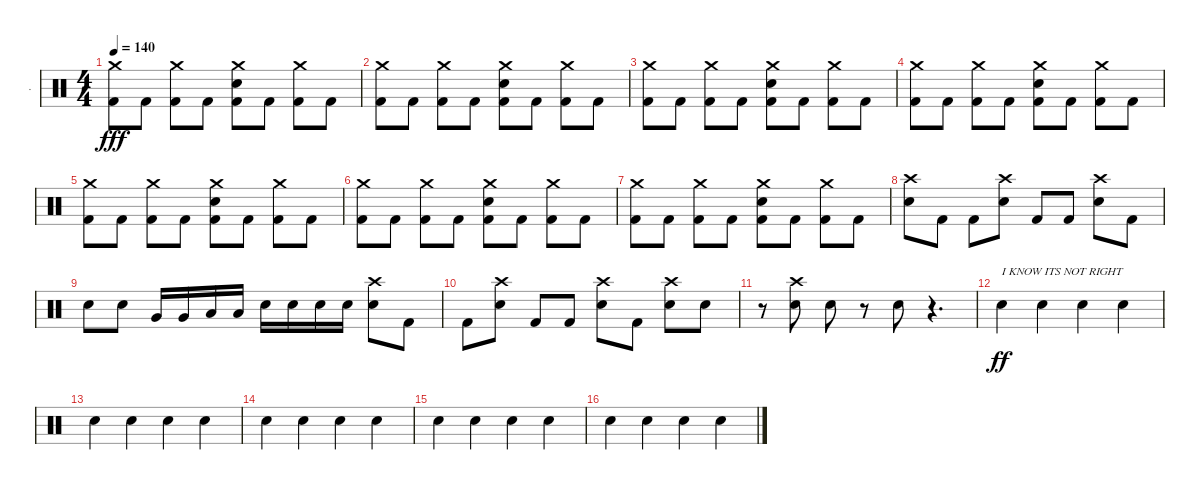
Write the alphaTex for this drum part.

\track ("." ".") {instrument percussion}
\staff {score}
\articulation defaults
\ts (4 4)
\tempo 140
\clef neutral
\ks c
("Crash medium (hit)" "Kick (hit) 2").8{dy fff} "Kick (hit) 2".8 ("Crash medium (hit)" "Kick (hit) 2").8 "Kick (hit) 2".8 ("Crash medium (hit)" "Electric Snare (hit)" "Kick (hit) 2").8 "Kick (hit) 2".8 ("Crash medium (hit)" "Kick (hit) 2").8 "Kick (hit) 2".8 |
("Crash medium (hit)" "Kick (hit) 2").8 "Kick (hit) 2".8 ("Crash medium (hit)" "Kick (hit) 2").8 "Kick (hit) 2".8 ("Crash medium (hit)" "Electric Snare (hit)" "Kick (hit) 2").8 "Kick (hit) 2".8 ("Crash medium (hit)" "Kick (hit) 2").8 "Kick (hit) 2".8 |
("Crash medium (hit)" "Kick (hit) 2").8 "Kick (hit) 2".8 ("Crash medium (hit)" "Kick (hit) 2").8 "Kick (hit) 2".8 ("Crash medium (hit)" "Electric Snare (hit)" "Kick (hit) 2").8 "Kick (hit) 2".8 ("Crash medium (hit)" "Kick (hit) 2").8 "Kick (hit) 2".8 |
("Crash medium (hit)" "Kick (hit) 2").8 "Kick (hit) 2".8 ("Crash medium (hit)" "Kick (hit) 2").8 "Kick (hit) 2".8 ("Crash medium (hit)" "Electric Snare (hit)" "Kick (hit) 2").8 "Kick (hit) 2".8 ("Crash medium (hit)" "Kick (hit) 2").8 "Kick (hit) 2".8 |
("Crash medium (hit)" "Kick (hit) 2").8 "Kick (hit) 2".8 ("Crash medium (hit)" "Kick (hit) 2").8 "Kick (hit) 2".8 ("Crash medium (hit)" "Electric Snare (hit)" "Kick (hit) 2").8 "Kick (hit) 2".8 ("Crash medium (hit)" "Kick (hit) 2").8 "Kick (hit) 2".8 |
("Crash medium (hit)" "Kick (hit) 2").8 "Kick (hit) 2".8 ("Crash medium (hit)" "Kick (hit) 2").8 "Kick (hit) 2".8 ("Crash medium (hit)" "Electric Snare (hit)" "Kick (hit) 2").8 "Kick (hit) 2".8 ("Crash medium (hit)" "Kick (hit) 2").8 "Kick (hit) 2".8 |
("Crash medium (hit)" "Kick (hit) 2").8 "Kick (hit) 2".8 ("Crash medium (hit)" "Kick (hit) 2").8 "Kick (hit) 2".8 ("Crash medium (hit)" "Electric Snare (hit)" "Kick (hit) 2").8 "Kick (hit) 2".8 ("Crash medium (hit)" "Kick (hit) 2").8 "Kick (hit) 2".8 |
("Crash high (hit)" "Electric Snare (hit)").8 "Kick (hit) 2".8 "Kick (hit) 2".8 ("Crash high (hit)" "Electric Snare (hit)").8 "Kick (hit) 2".8 "Kick (hit) 2".8 ("Crash high (hit)" "Electric Snare (hit)").8 "Kick (hit) 2".8 |
"Electric Snare (hit)".8 "Electric Snare (hit)".8 "Very Low Tom (hit)".16 "Very Low Tom (hit)".16 "Low Floor Tom (hit)".16 "Low Floor Tom (hit)".16 "Electric Snare (hit)".16 "Electric Snare (hit)".16 "Electric Snare (hit)".16 "Electric Snare (hit)".16 ("Crash high (hit)" "Electric Snare (hit)").8 "Kick (hit) 2".8 |
"Kick (hit) 2".8 ("Crash high (hit)" "Electric Snare (hit)").8 "Kick (hit) 2".8 "Kick (hit) 2".8 ("Crash high (hit)" "Electric Snare (hit)").8 "Kick (hit) 2".8 ("Crash high (hit)" "Electric Snare (hit)").8 "Electric Snare (hit)".8 |
r.8 ("Crash high (hit)" "Electric Snare (hit)").8 "Electric Snare (hit)".8 r.8 "Electric Snare (hit)".8 r.4{d} |
"Electric Snare (hit)".4{txt "I KNOW ITS NOT RIGHT" dy ff} "Electric Snare (hit)".4 "Electric Snare (hit)".4 "Electric Snare (hit)".4 |
"Electric Snare (hit)".4 "Electric Snare (hit)".4 "Electric Snare (hit)".4 "Electric Snare (hit)".4 |
"Electric Snare (hit)".4 "Electric Snare (hit)".4 "Electric Snare (hit)".4 "Electric Snare (hit)".4 |
"Electric Snare (hit)".4 "Electric Snare (hit)".4 "Electric Snare (hit)".4 "Electric Snare (hit)".4 |
"Electric Snare (hit)".4 "Electric Snare (hit)".4 "Electric Snare (hit)".4 "Electric Snare (hit)".4
